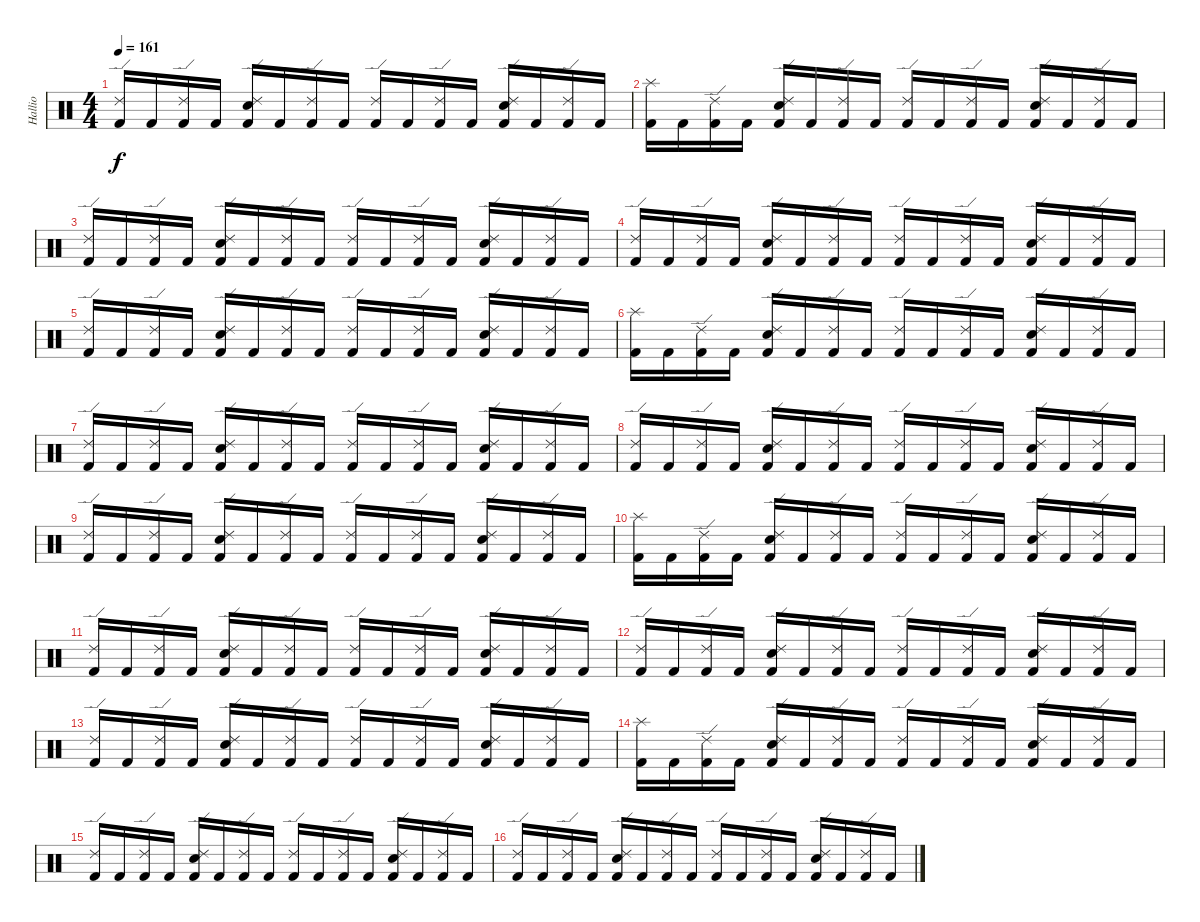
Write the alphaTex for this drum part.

\track ("Hallio" "Hallio") {instrument percussion}
\staff {score}
\articulation defaults
\ts (4 4)
\tempo 161
\clef neutral
\ks c
("Kick (hit) 2" "Ride (edge) 2").16{dy f} "Kick (hit) 2".16 ("Kick (hit) 2" "Ride (edge) 2").16 "Kick (hit) 2".16 ("Kick (hit) 2" "Snare (hit) 2" "Ride (edge) 2").16 "Kick (hit) 2".16 ("Kick (hit) 2" "Ride (edge) 2").16 "Kick (hit) 2".16 ("Kick (hit) 2" "Ride (edge) 2").16 "Kick (hit) 2".16 ("Kick (hit) 2" "Ride (edge) 2").16 "Kick (hit) 2".16 ("Kick (hit) 2" "Snare (hit) 2" "Ride (edge) 2").16 "Kick (hit) 2".16 ("Kick (hit) 2" "Ride (edge) 2").16 "Kick (hit) 2".16 |
("Kick (hit) 2" "Splash (hit)").16 "Kick (hit) 2".16 ("Kick (hit) 2" "Ride (edge) 2").16 "Kick (hit) 2".16 ("Kick (hit) 2" "Snare (hit) 2" "Ride (edge) 2").16 "Kick (hit) 2".16 ("Kick (hit) 2" "Ride (edge) 2").16 "Kick (hit) 2".16 ("Kick (hit) 2" "Ride (edge) 2").16 "Kick (hit) 2".16 ("Kick (hit) 2" "Ride (edge) 2").16 "Kick (hit) 2".16 ("Kick (hit) 2" "Snare (hit) 2" "Ride (edge) 2").16 "Kick (hit) 2".16 ("Kick (hit) 2" "Ride (edge) 2").16 "Kick (hit) 2".16 |
("Kick (hit) 2" "Ride (edge) 2").16 "Kick (hit) 2".16 ("Kick (hit) 2" "Ride (edge) 2").16 "Kick (hit) 2".16 ("Kick (hit) 2" "Snare (hit) 2" "Ride (edge) 2").16 "Kick (hit) 2".16 ("Kick (hit) 2" "Ride (edge) 2").16 "Kick (hit) 2".16 ("Kick (hit) 2" "Ride (edge) 2").16 "Kick (hit) 2".16 ("Kick (hit) 2" "Ride (edge) 2").16 "Kick (hit) 2".16 ("Kick (hit) 2" "Snare (hit) 2" "Ride (edge) 2").16 "Kick (hit) 2".16 ("Kick (hit) 2" "Ride (edge) 2").16 "Kick (hit) 2".16 |
("Kick (hit) 2" "Ride (edge) 2").16 "Kick (hit) 2".16 ("Kick (hit) 2" "Ride (edge) 2").16 "Kick (hit) 2".16 ("Kick (hit) 2" "Snare (hit) 2" "Ride (edge) 2").16 "Kick (hit) 2".16 ("Kick (hit) 2" "Ride (edge) 2").16 "Kick (hit) 2".16 ("Kick (hit) 2" "Ride (edge) 2").16 "Kick (hit) 2".16 ("Kick (hit) 2" "Ride (edge) 2").16 "Kick (hit) 2".16 ("Kick (hit) 2" "Snare (hit) 2" "Ride (edge) 2").16 "Kick (hit) 2".16 ("Kick (hit) 2" "Ride (edge) 2").16 "Kick (hit) 2".16 |
("Kick (hit) 2" "Ride (edge) 2").16 "Kick (hit) 2".16 ("Kick (hit) 2" "Ride (edge) 2").16 "Kick (hit) 2".16 ("Kick (hit) 2" "Snare (hit) 2" "Ride (edge) 2").16 "Kick (hit) 2".16 ("Kick (hit) 2" "Ride (edge) 2").16 "Kick (hit) 2".16 ("Kick (hit) 2" "Ride (edge) 2").16 "Kick (hit) 2".16 ("Kick (hit) 2" "Ride (edge) 2").16 "Kick (hit) 2".16 ("Kick (hit) 2" "Snare (hit) 2" "Ride (edge) 2").16 "Kick (hit) 2".16 ("Kick (hit) 2" "Ride (edge) 2").16 "Kick (hit) 2".16 |
("Kick (hit) 2" "Splash (hit)").16 "Kick (hit) 2".16 ("Kick (hit) 2" "Ride (edge) 2").16 "Kick (hit) 2".16 ("Kick (hit) 2" "Snare (hit) 2" "Ride (edge) 2").16 "Kick (hit) 2".16 ("Kick (hit) 2" "Ride (edge) 2").16 "Kick (hit) 2".16 ("Kick (hit) 2" "Ride (edge) 2").16 "Kick (hit) 2".16 ("Kick (hit) 2" "Ride (edge) 2").16 "Kick (hit) 2".16 ("Kick (hit) 2" "Snare (hit) 2" "Ride (edge) 2").16 "Kick (hit) 2".16 ("Kick (hit) 2" "Ride (edge) 2").16 "Kick (hit) 2".16 |
("Kick (hit) 2" "Ride (edge) 2").16 "Kick (hit) 2".16 ("Kick (hit) 2" "Ride (edge) 2").16 "Kick (hit) 2".16 ("Kick (hit) 2" "Snare (hit) 2" "Ride (edge) 2").16 "Kick (hit) 2".16 ("Kick (hit) 2" "Ride (edge) 2").16 "Kick (hit) 2".16 ("Kick (hit) 2" "Ride (edge) 2").16 "Kick (hit) 2".16 ("Kick (hit) 2" "Ride (edge) 2").16 "Kick (hit) 2".16 ("Kick (hit) 2" "Snare (hit) 2" "Ride (edge) 2").16 "Kick (hit) 2".16 ("Kick (hit) 2" "Ride (edge) 2").16 "Kick (hit) 2".16 |
("Kick (hit) 2" "Ride (edge) 2").16 "Kick (hit) 2".16 ("Kick (hit) 2" "Ride (edge) 2").16 "Kick (hit) 2".16 ("Kick (hit) 2" "Snare (hit) 2" "Ride (edge) 2").16 "Kick (hit) 2".16 ("Kick (hit) 2" "Ride (edge) 2").16 "Kick (hit) 2".16 ("Kick (hit) 2" "Ride (edge) 2").16 "Kick (hit) 2".16 ("Kick (hit) 2" "Ride (edge) 2").16 "Kick (hit) 2".16 ("Kick (hit) 2" "Snare (hit) 2" "Ride (edge) 2").16 "Kick (hit) 2".16 ("Kick (hit) 2" "Ride (edge) 2").16 "Kick (hit) 2".16 |
("Kick (hit) 2" "Ride (edge) 2").16 "Kick (hit) 2".16 ("Kick (hit) 2" "Ride (edge) 2").16 "Kick (hit) 2".16 ("Kick (hit) 2" "Snare (hit) 2" "Ride (edge) 2").16 "Kick (hit) 2".16 ("Kick (hit) 2" "Ride (edge) 2").16 "Kick (hit) 2".16 ("Kick (hit) 2" "Ride (edge) 2").16 "Kick (hit) 2".16 ("Kick (hit) 2" "Ride (edge) 2").16 "Kick (hit) 2".16 ("Kick (hit) 2" "Snare (hit) 2" "Ride (edge) 2").16 "Kick (hit) 2".16 ("Kick (hit) 2" "Ride (edge) 2").16 "Kick (hit) 2".16 |
("Kick (hit) 2" "Splash (hit)").16 "Kick (hit) 2".16 ("Kick (hit) 2" "Ride (edge) 2").16 "Kick (hit) 2".16 ("Kick (hit) 2" "Snare (hit) 2" "Ride (edge) 2").16 "Kick (hit) 2".16 ("Kick (hit) 2" "Ride (edge) 2").16 "Kick (hit) 2".16 ("Kick (hit) 2" "Ride (edge) 2").16 "Kick (hit) 2".16 ("Kick (hit) 2" "Ride (edge) 2").16 "Kick (hit) 2".16 ("Kick (hit) 2" "Snare (hit) 2" "Ride (edge) 2").16 "Kick (hit) 2".16 ("Kick (hit) 2" "Ride (edge) 2").16 "Kick (hit) 2".16 |
("Kick (hit) 2" "Ride (edge) 2").16 "Kick (hit) 2".16 ("Kick (hit) 2" "Ride (edge) 2").16 "Kick (hit) 2".16 ("Kick (hit) 2" "Snare (hit) 2" "Ride (edge) 2").16 "Kick (hit) 2".16 ("Kick (hit) 2" "Ride (edge) 2").16 "Kick (hit) 2".16 ("Kick (hit) 2" "Ride (edge) 2").16 "Kick (hit) 2".16 ("Kick (hit) 2" "Ride (edge) 2").16 "Kick (hit) 2".16 ("Kick (hit) 2" "Snare (hit) 2" "Ride (edge) 2").16 "Kick (hit) 2".16 ("Kick (hit) 2" "Ride (edge) 2").16 "Kick (hit) 2".16 |
("Kick (hit) 2" "Ride (edge) 2").16 "Kick (hit) 2".16 ("Kick (hit) 2" "Ride (edge) 2").16 "Kick (hit) 2".16 ("Kick (hit) 2" "Snare (hit) 2" "Ride (edge) 2").16 "Kick (hit) 2".16 ("Kick (hit) 2" "Ride (edge) 2").16 "Kick (hit) 2".16 ("Kick (hit) 2" "Ride (edge) 2").16 "Kick (hit) 2".16 ("Kick (hit) 2" "Ride (edge) 2").16 "Kick (hit) 2".16 ("Kick (hit) 2" "Snare (hit) 2" "Ride (edge) 2").16 "Kick (hit) 2".16 ("Kick (hit) 2" "Ride (edge) 2").16 "Kick (hit) 2".16 |
("Kick (hit) 2" "Ride (edge) 2").16 "Kick (hit) 2".16 ("Kick (hit) 2" "Ride (edge) 2").16 "Kick (hit) 2".16 ("Kick (hit) 2" "Snare (hit) 2" "Ride (edge) 2").16 "Kick (hit) 2".16 ("Kick (hit) 2" "Ride (edge) 2").16 "Kick (hit) 2".16 ("Kick (hit) 2" "Ride (edge) 2").16 "Kick (hit) 2".16 ("Kick (hit) 2" "Ride (edge) 2").16 "Kick (hit) 2".16 ("Kick (hit) 2" "Snare (hit) 2" "Ride (edge) 2").16 "Kick (hit) 2".16 ("Kick (hit) 2" "Ride (edge) 2").16 "Kick (hit) 2".16 |
("Kick (hit) 2" "Splash (hit)").16 "Kick (hit) 2".16 ("Kick (hit) 2" "Ride (edge) 2").16 "Kick (hit) 2".16 ("Kick (hit) 2" "Snare (hit) 2" "Ride (edge) 2").16 "Kick (hit) 2".16 ("Kick (hit) 2" "Ride (edge) 2").16 "Kick (hit) 2".16 ("Kick (hit) 2" "Ride (edge) 2").16 "Kick (hit) 2".16 ("Kick (hit) 2" "Ride (edge) 2").16 "Kick (hit) 2".16 ("Kick (hit) 2" "Snare (hit) 2" "Ride (edge) 2").16 "Kick (hit) 2".16 ("Kick (hit) 2" "Ride (edge) 2").16 "Kick (hit) 2".16 |
("Kick (hit) 2" "Ride (edge) 2").16 "Kick (hit) 2".16 ("Kick (hit) 2" "Ride (edge) 2").16 "Kick (hit) 2".16 ("Kick (hit) 2" "Snare (hit) 2" "Ride (edge) 2").16 "Kick (hit) 2".16 ("Kick (hit) 2" "Ride (edge) 2").16 "Kick (hit) 2".16 ("Kick (hit) 2" "Ride (edge) 2").16 "Kick (hit) 2".16 ("Kick (hit) 2" "Ride (edge) 2").16 "Kick (hit) 2".16 ("Kick (hit) 2" "Snare (hit) 2" "Ride (edge) 2").16 "Kick (hit) 2".16 ("Kick (hit) 2" "Ride (edge) 2").16 "Kick (hit) 2".16 |
("Kick (hit) 2" "Ride (edge) 2").16 "Kick (hit) 2".16 ("Kick (hit) 2" "Ride (edge) 2").16 "Kick (hit) 2".16 ("Kick (hit) 2" "Snare (hit) 2" "Ride (edge) 2").16 "Kick (hit) 2".16 ("Kick (hit) 2" "Ride (edge) 2").16 "Kick (hit) 2".16 ("Kick (hit) 2" "Ride (edge) 2").16 "Kick (hit) 2".16 ("Kick (hit) 2" "Ride (edge) 2").16 "Kick (hit) 2".16 ("Kick (hit) 2" "Snare (hit) 2" "Ride (edge) 2").16 "Kick (hit) 2".16 ("Kick (hit) 2" "Ride (edge) 2").16 "Kick (hit) 2".16
